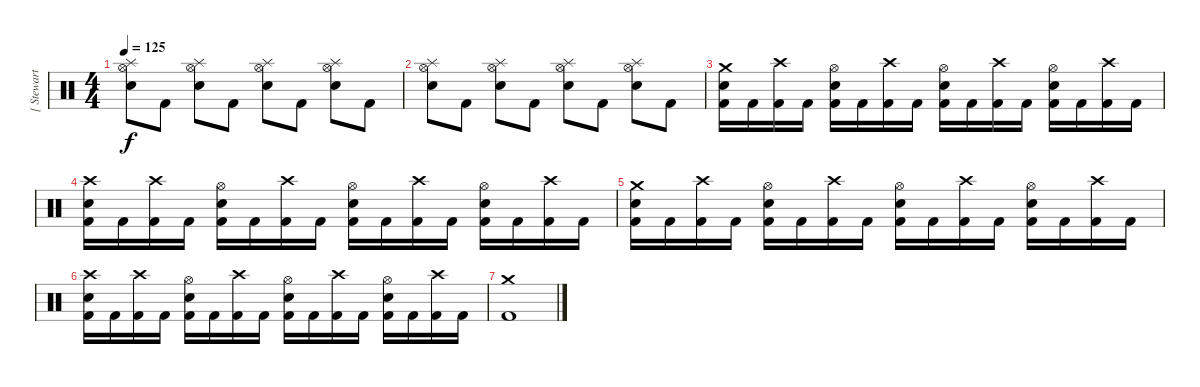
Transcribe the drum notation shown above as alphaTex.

\track ("[ Stewart ]" "[ Stewart ") {instrument percussion}
\staff {score}
\articulation defaults
\ts (4 4)
\tempo 125
\clef neutral
\ks c
("Electric Snare (hit)" "Splash (hit)" "Hi-Hat (open)").8{dy f} "Kick (hit) 2".8 ("Electric Snare (hit)" "Splash (hit)" "Hi-Hat (open)").8 "Kick (hit) 2".8 ("Electric Snare (hit)" "Splash (hit)" "Hi-Hat (open)").8 "Kick (hit) 2".8 ("Electric Snare (hit)" "Splash (hit)" "Hi-Hat (open)").8 "Kick (hit) 2".8 |
("Electric Snare (hit)" "Splash (hit)" "Hi-Hat (open)").8 "Kick (hit) 2".8 ("Electric Snare (hit)" "Splash (hit)" "Hi-Hat (open)").8 "Kick (hit) 2".8 ("Electric Snare (hit)" "Splash (hit)" "Hi-Hat (open)").8 "Kick (hit) 2".8 ("Electric Snare (hit)" "Splash (hit)" "Hi-Hat (open)").8 "Kick (hit) 2".8 |
("Kick (hit) 2" "Electric Snare (hit)" "Crash medium (hit)").16 "Kick (hit) 2".16 ("Kick (hit) 2" "Crash high (hit)").16 "Kick (hit) 2".16 ("Kick (hit) 2" "Electric Snare (hit)" "Hi-Hat (open)").16 "Kick (hit) 2".16 ("Kick (hit) 2" "Crash high (hit)").16 "Kick (hit) 2".16 ("Kick (hit) 2" "Electric Snare (hit)" "Hi-Hat (open)").16 "Kick (hit) 2".16 ("Kick (hit) 2" "Crash high (hit)").16 "Kick (hit) 2".16 ("Kick (hit) 2" "Electric Snare (hit)" "Hi-Hat (open)").16 "Kick (hit) 2".16 ("Kick (hit) 2" "Crash high (hit)").16 "Kick (hit) 2".16 |
("Kick (hit) 2" "Electric Snare (hit)" "Crash high (hit)").16 "Kick (hit) 2".16 ("Kick (hit) 2" "Crash high (hit)").16 "Kick (hit) 2".16 ("Kick (hit) 2" "Electric Snare (hit)" "Hi-Hat (open)").16 "Kick (hit) 2".16 ("Kick (hit) 2" "Crash high (hit)").16 "Kick (hit) 2".16 ("Kick (hit) 2" "Electric Snare (hit)" "Hi-Hat (open)").16 "Kick (hit) 2".16 ("Kick (hit) 2" "Crash high (hit)").16 "Kick (hit) 2".16 ("Kick (hit) 2" "Electric Snare (hit)" "Hi-Hat (open)").16 "Kick (hit) 2".16 ("Kick (hit) 2" "Crash high (hit)").16 "Kick (hit) 2".16 |
("Kick (hit) 2" "Electric Snare (hit)" "Crash medium (hit)").16 "Kick (hit) 2".16 ("Kick (hit) 2" "Crash high (hit)").16 "Kick (hit) 2".16 ("Kick (hit) 2" "Electric Snare (hit)" "Hi-Hat (open)").16 "Kick (hit) 2".16 ("Kick (hit) 2" "Crash high (hit)").16 "Kick (hit) 2".16 ("Kick (hit) 2" "Electric Snare (hit)" "Hi-Hat (open)").16 "Kick (hit) 2".16 ("Kick (hit) 2" "Crash high (hit)").16 "Kick (hit) 2".16 ("Kick (hit) 2" "Electric Snare (hit)" "Hi-Hat (open)").16 "Kick (hit) 2".16 ("Kick (hit) 2" "Crash high (hit)").16 "Kick (hit) 2".16 |
("Kick (hit) 2" "Electric Snare (hit)" "Crash high (hit)").16 "Kick (hit) 2".16 ("Kick (hit) 2" "Crash high (hit)").16 "Kick (hit) 2".16 ("Kick (hit) 2" "Electric Snare (hit)" "Hi-Hat (open)").16 "Kick (hit) 2".16 ("Kick (hit) 2" "Crash high (hit)").16 "Kick (hit) 2".16 ("Kick (hit) 2" "Electric Snare (hit)" "Hi-Hat (open)").16 "Kick (hit) 2".16 ("Kick (hit) 2" "Crash high (hit)").16 "Kick (hit) 2".16 ("Kick (hit) 2" "Electric Snare (hit)" "Hi-Hat (open)").16 "Kick (hit) 2".16 ("Kick (hit) 2" "Crash high (hit)").16 "Kick (hit) 2".16 |
("Kick (hit) 2" "Crash medium (hit)").1
